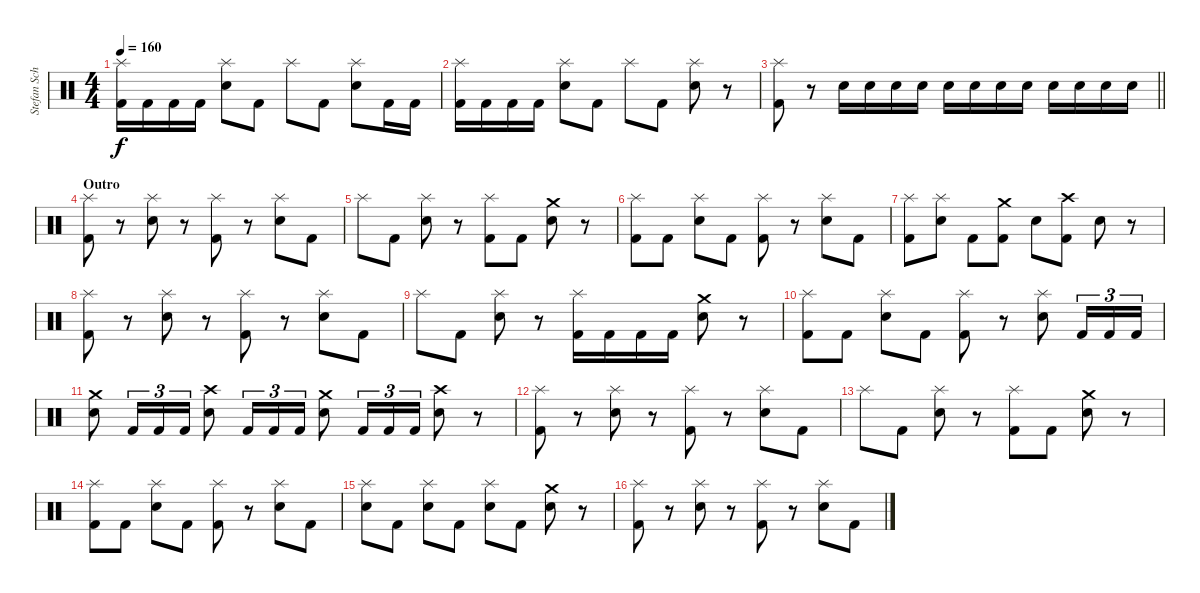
\track ("Stefan Schwarzmann" "Stefan Sch") {instrument percussion}
\staff {score}
\articulation defaults
\ts (4 4)
\tempo 160
\clef neutral
\ks c
("Splash (hit)" "Kick (hit) 2").16{dy f} "Kick (hit) 2".16 "Kick (hit) 2".16 "Kick (hit) 2".16 ("Splash (hit)" "Snare (hit) 2").8 "Kick (hit) 2".8 "Splash (hit)".8 "Kick (hit) 2".8 ("Splash (hit)" "Snare (hit) 2").8 "Kick (hit) 2".16 "Kick (hit) 2".16 |
("Splash (hit)" "Kick (hit) 2").16 "Kick (hit) 2".16 "Kick (hit) 2".16 "Kick (hit) 2".16 ("Splash (hit)" "Snare (hit) 2").8 "Kick (hit) 2".8 "Splash (hit)".8 "Kick (hit) 2".8 ("Splash (hit)" "Snare (hit) 2").8 r.8 |
\barLineRight lightlight
("Splash (hit)" "Kick (hit) 2").8 r.8 "Snare (hit) 2".16 "Snare (hit) 2".16 "Snare (hit) 2".16 "Snare (hit) 2".16 "Snare (hit) 2".16 "Snare (hit) 2".16 "Snare (hit) 2".16 "Snare (hit) 2".16 "Snare (hit) 2".16 "Snare (hit) 2".16 "Snare (hit) 2".16 "Snare (hit) 2".16 |
\section ("" "Outro")
("Splash (hit)" "Kick (hit) 2").8 r.8 ("Splash (hit)" "Snare (hit) 2").8 r.8 ("Splash (hit)" "Kick (hit) 2").8 r.8 ("Splash (hit)" "Snare (hit) 2").8 "Kick (hit) 2".8 |
"Splash (hit)".8 "Kick (hit) 2".8 ("Splash (hit)" "Snare (hit) 2").8 r.8 ("Splash (hit)" "Kick (hit) 2").8 "Kick (hit) 2".8 ("Crash medium (hit)" "Snare (hit) 2").8 r.8 |
("Splash (hit)" "Kick (hit) 2").8 "Kick (hit) 2".8 ("Splash (hit)" "Snare (hit) 2").8 "Kick (hit) 2".8 ("Splash (hit)" "Kick (hit) 2").8 r.8 ("Splash (hit)" "Snare (hit) 2").8 "Kick (hit) 2".8 |
("Splash (hit)" "Kick (hit) 2").8 ("Splash (hit)" "Snare (hit) 2").8 "Kick (hit) 2".8 ("Crash medium (hit)" "Kick (hit) 2").8 "Snare (hit) 2".8 ("Crash high (hit)" "Kick (hit) 2").8 "Snare (hit) 2".8 r.8 |
("Splash (hit)" "Kick (hit) 2").8 r.8 ("Splash (hit)" "Snare (hit) 2").8 r.8 ("Splash (hit)" "Kick (hit) 2").8 r.8 ("Splash (hit)" "Snare (hit) 2").8 "Kick (hit) 2".8 |
"Splash (hit)".8 "Kick (hit) 2".8 ("Splash (hit)" "Snare (hit) 2").8 r.8 ("Splash (hit)" "Kick (hit) 2").16 "Kick (hit) 2".16 "Kick (hit) 2".16 "Kick (hit) 2".16 ("Crash medium (hit)" "Snare (hit) 2").8 r.8 |
("Splash (hit)" "Kick (hit) 2").8 "Kick (hit) 2".8 ("Splash (hit)" "Snare (hit) 2").8 "Kick (hit) 2".8 ("Splash (hit)" "Kick (hit) 2").8 r.8 ("Splash (hit)" "Snare (hit) 2").8 "Kick (hit) 2".16{tu (3 2)} "Kick (hit) 2".16{tu (3 2)} "Kick (hit) 2".16{tu (3 2)} |
("Crash medium (hit)" "Snare (hit) 2").8 "Kick (hit) 2".16{tu (3 2)} "Kick (hit) 2".16{tu (3 2)} "Kick (hit) 2".16{tu (3 2)} ("Crash high (hit)" "Snare (hit) 2").8 "Kick (hit) 2".16{tu (3 2)} "Kick (hit) 2".16{tu (3 2)} "Kick (hit) 2".16{tu (3 2)} ("Crash medium (hit)" "Snare (hit) 2").8 "Kick (hit) 2".16{tu (3 2)} "Kick (hit) 2".16{tu (3 2)} "Kick (hit) 2".16{tu (3 2)} ("Crash high (hit)" "Snare (hit) 2").8 r.8 |
("Splash (hit)" "Kick (hit) 2").8 r.8 ("Splash (hit)" "Snare (hit) 2").8 r.8 ("Splash (hit)" "Kick (hit) 2").8 r.8 ("Splash (hit)" "Snare (hit) 2").8 "Kick (hit) 2".8 |
"Splash (hit)".8 "Kick (hit) 2".8 ("Splash (hit)" "Snare (hit) 2").8 r.8 ("Splash (hit)" "Kick (hit) 2").8 "Kick (hit) 2".8 ("Crash medium (hit)" "Snare (hit) 2").8 r.8 |
("Splash (hit)" "Kick (hit) 2").8 "Kick (hit) 2".8 ("Splash (hit)" "Snare (hit) 2").8 "Kick (hit) 2".8 ("Splash (hit)" "Kick (hit) 2").8 r.8 ("Splash (hit)" "Snare (hit) 2").8 "Kick (hit) 2".8 |
("Splash (hit)" "Snare (hit) 2").8 "Kick (hit) 2".8 ("Splash (hit)" "Snare (hit) 2").8 "Kick (hit) 2".8 ("Splash (hit)" "Snare (hit) 2").8 "Kick (hit) 2".8 ("Crash medium (hit)" "Snare (hit) 2").8 r.8 |
("Splash (hit)" "Kick (hit) 2").8 r.8 ("Splash (hit)" "Snare (hit) 2").8 r.8 ("Splash (hit)" "Kick (hit) 2").8 r.8 ("Splash (hit)" "Snare (hit) 2").8 "Kick (hit) 2".8
